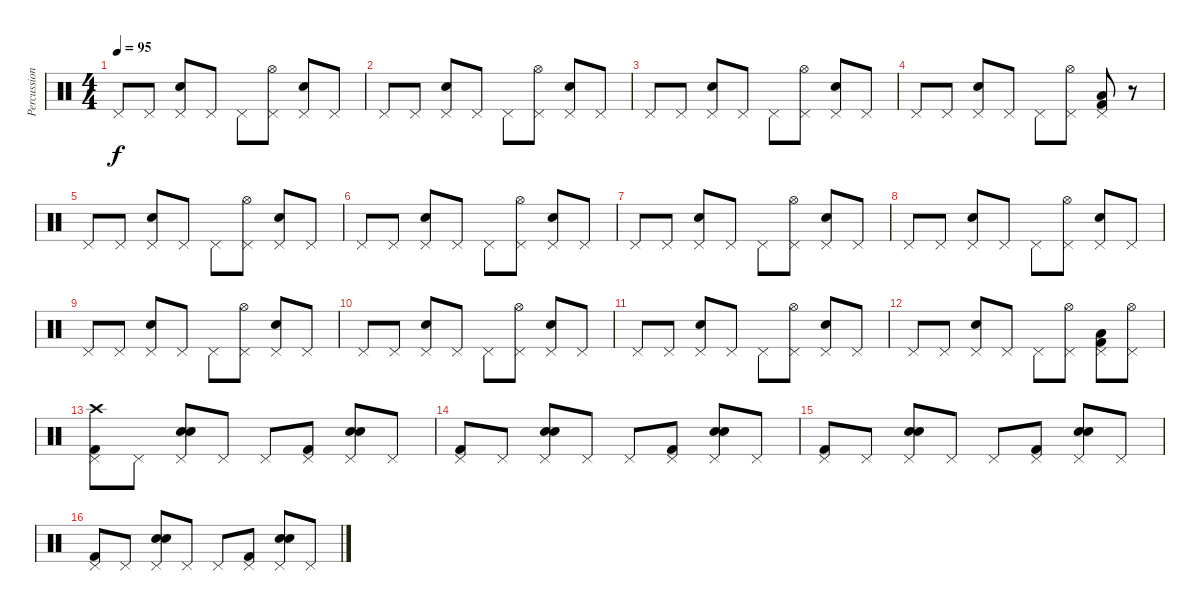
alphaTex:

\track ("Percussion (1)" "Percussion") {instrument percussion}
\staff {score}
\articulation defaults
\ts (4 4)
\tempo 95
\clef neutral
\ks c "Pedal Hi-Hat (hit)".8{dy f} "Pedal Hi-Hat (hit)".8
("Pedal Hi-Hat (hit)" "Electric Snare (hit)").8 "Pedal Hi-Hat (hit)".8 "Pedal Hi-Hat (hit)".8 ("Pedal Hi-Hat (hit)" "Hi-Hat (open)").8 ("Pedal Hi-Hat (hit)" "Electric Snare (hit)").8 "Pedal Hi-Hat (hit)".8 |
"Pedal Hi-Hat (hit)".8 "Pedal Hi-Hat (hit)".8 ("Pedal Hi-Hat (hit)" "Electric Snare (hit)").8 "Pedal Hi-Hat (hit)".8 "Pedal Hi-Hat (hit)".8 ("Pedal Hi-Hat (hit)" "Hi-Hat (open)").8 ("Pedal Hi-Hat (hit)" "Electric Snare (hit)").8 "Pedal Hi-Hat (hit)".8 |
"Pedal Hi-Hat (hit)".8 "Pedal Hi-Hat (hit)".8 ("Pedal Hi-Hat (hit)" "Electric Snare (hit)").8 "Pedal Hi-Hat (hit)".8 "Pedal Hi-Hat (hit)".8 ("Pedal Hi-Hat (hit)" "Hi-Hat (open)").8 ("Pedal Hi-Hat (hit)" "Electric Snare (hit)").8 "Pedal Hi-Hat (hit)".8 |
"Pedal Hi-Hat (hit)".8 "Pedal Hi-Hat (hit)".8 ("Pedal Hi-Hat (hit)" "Electric Snare (hit)").8 "Pedal Hi-Hat (hit)".8 "Pedal Hi-Hat (hit)".8 ("Pedal Hi-Hat (hit)" "Hi-Hat (open)").8 ("Pedal Hi-Hat (hit)" "Kick (hit) 2" "Low Floor Tom (hit)").8 r.8 |
"Pedal Hi-Hat (hit)".8 "Pedal Hi-Hat (hit)".8 ("Pedal Hi-Hat (hit)" "Electric Snare (hit)").8 "Pedal Hi-Hat (hit)".8 "Pedal Hi-Hat (hit)".8 ("Pedal Hi-Hat (hit)" "Hi-Hat (open)").8 ("Pedal Hi-Hat (hit)" "Electric Snare (hit)").8 "Pedal Hi-Hat (hit)".8 |
"Pedal Hi-Hat (hit)".8 "Pedal Hi-Hat (hit)".8 ("Pedal Hi-Hat (hit)" "Electric Snare (hit)").8 "Pedal Hi-Hat (hit)".8 "Pedal Hi-Hat (hit)".8 ("Pedal Hi-Hat (hit)" "Hi-Hat (open)").8 ("Pedal Hi-Hat (hit)" "Electric Snare (hit)").8 "Pedal Hi-Hat (hit)".8 |
"Pedal Hi-Hat (hit)".8 "Pedal Hi-Hat (hit)".8 ("Pedal Hi-Hat (hit)" "Electric Snare (hit)").8 "Pedal Hi-Hat (hit)".8 "Pedal Hi-Hat (hit)".8 ("Pedal Hi-Hat (hit)" "Hi-Hat (open)").8 ("Pedal Hi-Hat (hit)" "Electric Snare (hit)").8 "Pedal Hi-Hat (hit)".8 |
"Pedal Hi-Hat (hit)".8 "Pedal Hi-Hat (hit)".8 ("Pedal Hi-Hat (hit)" "Electric Snare (hit)").8 "Pedal Hi-Hat (hit)".8 "Pedal Hi-Hat (hit)".8 ("Pedal Hi-Hat (hit)" "Hi-Hat (open)").8 ("Pedal Hi-Hat (hit)" "Electric Snare (hit)").8 "Pedal Hi-Hat (hit)".8 |
"Pedal Hi-Hat (hit)".8 "Pedal Hi-Hat (hit)".8 ("Pedal Hi-Hat (hit)" "Electric Snare (hit)").8 "Pedal Hi-Hat (hit)".8 "Pedal Hi-Hat (hit)".8 ("Pedal Hi-Hat (hit)" "Hi-Hat (open)").8 ("Pedal Hi-Hat (hit)" "Electric Snare (hit)").8 "Pedal Hi-Hat (hit)".8 |
"Pedal Hi-Hat (hit)".8 "Pedal Hi-Hat (hit)".8 ("Pedal Hi-Hat (hit)" "Electric Snare (hit)").8 "Pedal Hi-Hat (hit)".8 "Pedal Hi-Hat (hit)".8 ("Pedal Hi-Hat (hit)" "Hi-Hat (open)").8 ("Pedal Hi-Hat (hit)" "Electric Snare (hit)").8 "Pedal Hi-Hat (hit)".8 |
"Pedal Hi-Hat (hit)".8 "Pedal Hi-Hat (hit)".8 ("Pedal Hi-Hat (hit)" "Electric Snare (hit)").8 "Pedal Hi-Hat (hit)".8 "Pedal Hi-Hat (hit)".8 ("Pedal Hi-Hat (hit)" "Hi-Hat (open)").8 ("Pedal Hi-Hat (hit)" "Electric Snare (hit)").8 "Pedal Hi-Hat (hit)".8 |
"Pedal Hi-Hat (hit)".8 "Pedal Hi-Hat (hit)".8 ("Pedal Hi-Hat (hit)" "Electric Snare (hit)").8 "Pedal Hi-Hat (hit)".8 "Pedal Hi-Hat (hit)".8 ("Pedal Hi-Hat (hit)" "Hi-Hat (open)").8 ("Pedal Hi-Hat (hit)" "Kick (hit) 2" "Low Floor Tom (hit)").8 ("Pedal Hi-Hat (hit)" "Hi-Hat (open)").8 |
("Pedal Hi-Hat (hit)" "Kick (hit) 2" "Crash high (hit)").8 "Pedal Hi-Hat (hit)".8 ("Pedal Hi-Hat (hit)" "Snare (hit) 2" "Electric Snare (hit)").8 "Pedal Hi-Hat (hit)".8 "Pedal Hi-Hat (hit)".8 ("Pedal Hi-Hat (hit)" "Kick (hit) 2").8 ("Pedal Hi-Hat (hit)" "Snare (hit) 2" "Electric Snare (hit)").8 "Pedal Hi-Hat (hit)".8 |
("Pedal Hi-Hat (hit)" "Kick (hit) 2").8 "Pedal Hi-Hat (hit)".8 ("Pedal Hi-Hat (hit)" "Snare (hit) 2" "Electric Snare (hit)").8 "Pedal Hi-Hat (hit)".8 "Pedal Hi-Hat (hit)".8 ("Pedal Hi-Hat (hit)" "Kick (hit) 2").8 ("Pedal Hi-Hat (hit)" "Snare (hit) 2" "Electric Snare (hit)").8 "Pedal Hi-Hat (hit)".8 |
("Pedal Hi-Hat (hit)" "Kick (hit) 2").8 "Pedal Hi-Hat (hit)".8 ("Pedal Hi-Hat (hit)" "Snare (hit) 2" "Electric Snare (hit)").8 "Pedal Hi-Hat (hit)".8 "Pedal Hi-Hat (hit)".8 ("Pedal Hi-Hat (hit)" "Kick (hit) 2").8 ("Pedal Hi-Hat (hit)" "Snare (hit) 2" "Electric Snare (hit)").8 "Pedal Hi-Hat (hit)".8 |
("Pedal Hi-Hat (hit)" "Kick (hit) 2").8 "Pedal Hi-Hat (hit)".8 ("Pedal Hi-Hat (hit)" "Snare (hit) 2" "Electric Snare (hit)").8 "Pedal Hi-Hat (hit)".8 "Pedal Hi-Hat (hit)".8 ("Pedal Hi-Hat (hit)" "Kick (hit) 2").8 ("Pedal Hi-Hat (hit)" "Snare (hit) 2" "Electric Snare (hit)").8 "Pedal Hi-Hat (hit)".8
